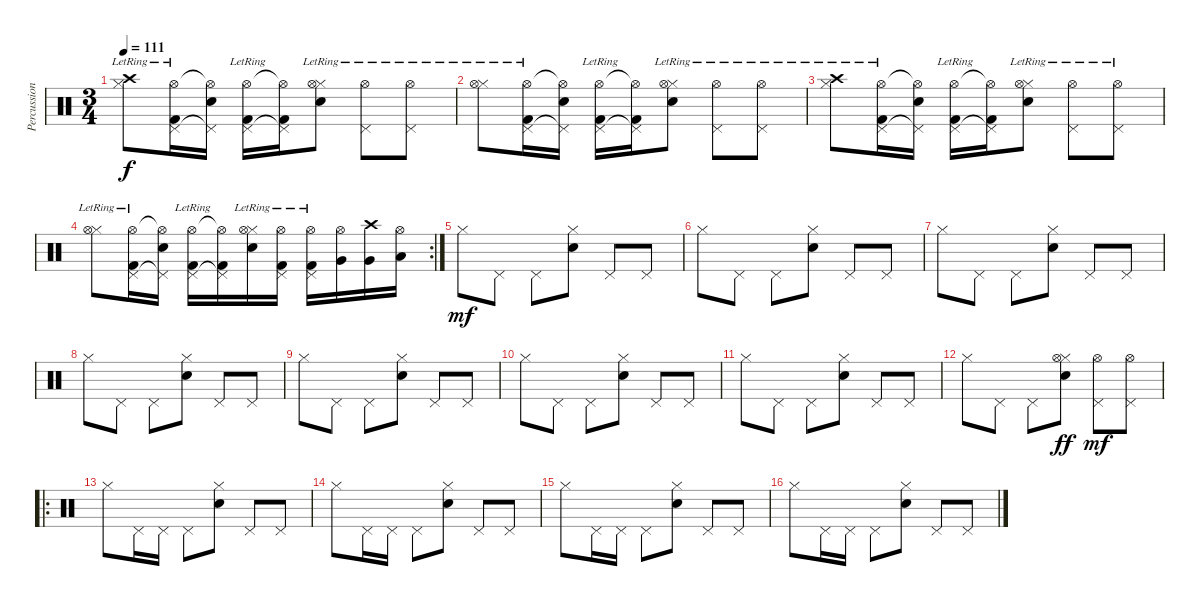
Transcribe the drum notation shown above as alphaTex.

\track ("Percussions" "Percussion") {instrument percussion}
\staff {score}
\articulation defaults
\ts (3 4)
\tempo 111
\clef neutral
\ks c
("Hi-Hat (closed)" "Crash high (hit)"{lr}).8{dy f} ("Kick (hit) 2" "Pedal Hi-Hat (hit)" "Hi-Hat (open)"{lr}).16 ("Electric Snare (hit)" "Pedal Hi-Hat (hit)"{t} "Hi-Hat (open)"{t}).16 ("Kick (hit) 2" "Pedal Hi-Hat (hit)" "Hi-Hat (open)"{lr}).16 ("Kick (hit) 2" "Pedal Hi-Hat (hit)"{t} "Hi-Hat (open)"{t}).16 ("Electric Snare (hit)" "Hi-Hat (closed)" "Hi-Hat (open)"{lr}).8 ("Pedal Hi-Hat (hit)" "Hi-Hat (open)"{lr}).8 ("Pedal Hi-Hat (hit)" "Hi-Hat (open)"{lr}).8 |
("Hi-Hat (closed)" "Hi-Hat (open)"{lr}).8 ("Kick (hit) 2" "Pedal Hi-Hat (hit)" "Hi-Hat (open)"{lr}).16 ("Electric Snare (hit)" "Pedal Hi-Hat (hit)"{t} "Hi-Hat (open)"{t}).16 ("Kick (hit) 2" "Pedal Hi-Hat (hit)" "Hi-Hat (open)"{lr}).16 ("Kick (hit) 2" "Pedal Hi-Hat (hit)"{t} "Hi-Hat (open)"{t}).16 ("Electric Snare (hit)" "Hi-Hat (closed)" "Hi-Hat (open)"{lr}).8 ("Pedal Hi-Hat (hit)" "Hi-Hat (open)"{lr}).8 ("Pedal Hi-Hat (hit)" "Hi-Hat (open)"{lr}).8 |
("Hi-Hat (closed)" "Crash high (hit)"{lr}).8 ("Kick (hit) 2" "Pedal Hi-Hat (hit)" "Hi-Hat (open)"{lr}).16 ("Electric Snare (hit)" "Pedal Hi-Hat (hit)"{t} "Hi-Hat (open)"{t}).16 ("Kick (hit) 2" "Pedal Hi-Hat (hit)" "Hi-Hat (open)"{lr}).16 ("Kick (hit) 2" "Pedal Hi-Hat (hit)"{t} "Hi-Hat (open)"{t}).16 ("Electric Snare (hit)" "Hi-Hat (closed)" "Hi-Hat (open)"{lr}).8 ("Pedal Hi-Hat (hit)" "Hi-Hat (open)"{lr}).8 ("Pedal Hi-Hat (hit)" "Hi-Hat (open)"{lr}).8 |
\rc 2
("Hi-Hat (closed)" "Hi-Hat (open)"{lr}).8 ("Kick (hit) 2" "Pedal Hi-Hat (hit)" "Hi-Hat (open)"{lr}).16 ("Electric Snare (hit)" "Pedal Hi-Hat (hit)"{t} "Hi-Hat (open)"{t}).16 ("Kick (hit) 2" "Pedal Hi-Hat (hit)" "Hi-Hat (open)"{lr}).16 ("Kick (hit) 2" "Pedal Hi-Hat (hit)"{t} "Hi-Hat (open)"{t}).16 ("Electric Snare (hit)" "Hi-Hat (closed)" "Hi-Hat (open)"{lr}).16 ("Kick (hit) 2" "Pedal Hi-Hat (hit)" "Hi-Hat (open)"{lr}).16 ("Kick (hit) 2" "Pedal Hi-Hat (hit)" "Hi-Hat (open)"{lr}).16 ("Very Low Tom (hit)" "Hi-Hat (open)").16 ("Very Low Tom (hit)" "Crash high (hit)").16 ("Low Floor Tom (hit)" "Hi-Hat (open)").16 |
"Hi-Hat (closed)".8{dy mf} "Pedal Hi-Hat (hit)".8 "Pedal Hi-Hat (hit)".8 ("Electric Snare (hit)" "Hi-Hat (closed)").8 "Pedal Hi-Hat (hit)".8 "Pedal Hi-Hat (hit)".8 |
"Hi-Hat (closed)".8 "Pedal Hi-Hat (hit)".8 "Pedal Hi-Hat (hit)".8 ("Electric Snare (hit)" "Hi-Hat (closed)").8 "Pedal Hi-Hat (hit)".8 "Pedal Hi-Hat (hit)".8 |
"Hi-Hat (closed)".8 "Pedal Hi-Hat (hit)".8 "Pedal Hi-Hat (hit)".8 ("Electric Snare (hit)" "Hi-Hat (closed)").8 "Pedal Hi-Hat (hit)".8 "Pedal Hi-Hat (hit)".8 |
"Hi-Hat (closed)".8 "Pedal Hi-Hat (hit)".8 "Pedal Hi-Hat (hit)".8 ("Electric Snare (hit)" "Hi-Hat (closed)").8 "Pedal Hi-Hat (hit)".8 "Pedal Hi-Hat (hit)".8 |
"Hi-Hat (closed)".8 "Pedal Hi-Hat (hit)".8 "Pedal Hi-Hat (hit)".8 ("Electric Snare (hit)" "Hi-Hat (closed)").8 "Pedal Hi-Hat (hit)".8 "Pedal Hi-Hat (hit)".8 |
"Hi-Hat (closed)".8 "Pedal Hi-Hat (hit)".8 "Pedal Hi-Hat (hit)".8 ("Electric Snare (hit)" "Hi-Hat (closed)").8 "Pedal Hi-Hat (hit)".8 "Pedal Hi-Hat (hit)".8 |
"Hi-Hat (closed)".8 "Pedal Hi-Hat (hit)".8 "Pedal Hi-Hat (hit)".8 ("Electric Snare (hit)" "Hi-Hat (closed)").8 "Pedal Hi-Hat (hit)".8 "Pedal Hi-Hat (hit)".8 |
"Hi-Hat (closed)".8 "Pedal Hi-Hat (hit)".8 "Pedal Hi-Hat (hit)".8 ("Electric Snare (hit)" "Hi-Hat (closed)" "Hi-Hat (open)").8{dy ff} ("Pedal Hi-Hat (hit)" "Hi-Hat (open)").8{dy mf} ("Pedal Hi-Hat (hit)" "Hi-Hat (open)").8 |
\ro "Hi-Hat (closed)".8 "Pedal Hi-Hat (hit)".16 "Pedal Hi-Hat (hit)".16 "Pedal Hi-Hat (hit)".8
("Electric Snare (hit)" "Hi-Hat (closed)").8 "Pedal Hi-Hat (hit)".8 "Pedal Hi-Hat (hit)".8 |
"Hi-Hat (closed)".8 "Pedal Hi-Hat (hit)".16 "Pedal Hi-Hat (hit)".16 "Pedal Hi-Hat (hit)".8 ("Electric Snare (hit)" "Hi-Hat (closed)").8 "Pedal Hi-Hat (hit)".8 "Pedal Hi-Hat (hit)".8 |
"Hi-Hat (closed)".8 "Pedal Hi-Hat (hit)".16 "Pedal Hi-Hat (hit)".16 "Pedal Hi-Hat (hit)".8 ("Electric Snare (hit)" "Hi-Hat (closed)").8 "Pedal Hi-Hat (hit)".8 "Pedal Hi-Hat (hit)".8 |
"Hi-Hat (closed)".8 "Pedal Hi-Hat (hit)".16 "Pedal Hi-Hat (hit)".16 "Pedal Hi-Hat (hit)".8 ("Electric Snare (hit)" "Hi-Hat (closed)").8 "Pedal Hi-Hat (hit)".8 "Pedal Hi-Hat (hit)".8
